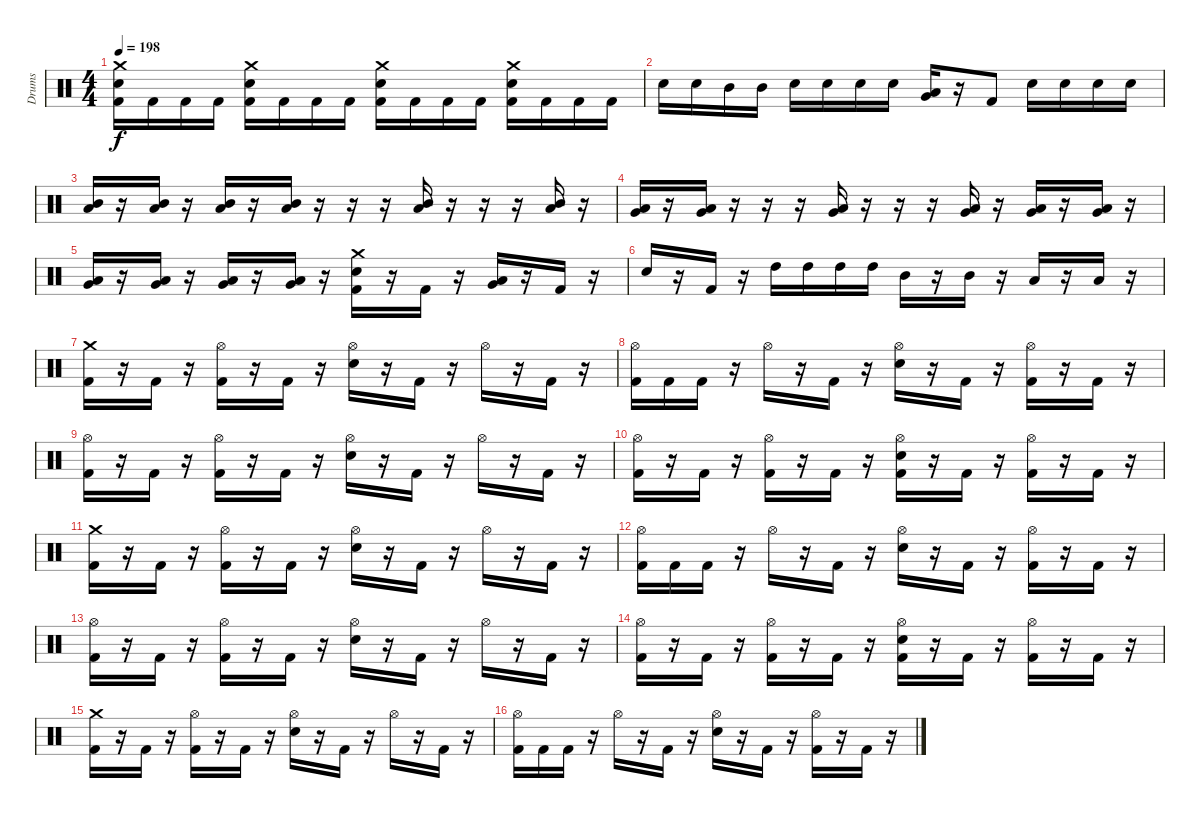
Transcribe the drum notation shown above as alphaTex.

\track ("Drums" "Drums") {instrument percussion}
\staff {score}
\articulation defaults
\ts (4 4)
\tempo 198
\clef neutral
\ks c
("Crash medium (hit)" "Snare (hit) 2" "Kick (hit) 2").16{dy f} "Kick (hit) 2".16 "Kick (hit) 2".16 "Kick (hit) 2".16 ("Crash medium (hit)" "Snare (hit) 2" "Kick (hit) 2").16 "Kick (hit) 2".16 "Kick (hit) 2".16 "Kick (hit) 2".16 ("Crash medium (hit)" "Snare (hit) 2" "Kick (hit) 2").16 "Kick (hit) 2".16 "Kick (hit) 2".16 "Kick (hit) 2".16 ("Crash medium (hit)" "Snare (hit) 2" "Kick (hit) 2").16 "Kick (hit) 2".16 "Kick (hit) 2".16 "Kick (hit) 2".16 |
"Snare (hit) 2".16 "Snare (hit) 2".16 "Mid Tom (hit)".16 "Mid Tom (hit)".16 "Snare (hit) 2".16 "Snare (hit) 2".16 "Snare (hit) 2".16 "Snare (hit) 2".16 ("Very Low Tom (hit)" "Low Tom (hit)").16 r.16 "Kick (hit) 2".8 "Snare (hit) 2".16 "Snare (hit) 2".16 "Snare (hit) 2".16 "Snare (hit) 2".16 |
("Mid Tom (hit)" "Low Tom (hit)").16 r.16 ("Mid Tom (hit)" "Low Tom (hit)").16 r.16 ("Mid Tom (hit)" "Low Tom (hit)").16 r.16 ("Mid Tom (hit)" "Low Tom (hit)").16 r.16 r.16 r.16 ("Mid Tom (hit)" "Low Tom (hit)").16 r.16 r.16 r.16 ("Mid Tom (hit)" "Low Tom (hit)").16 r.16 |
("Very Low Tom (hit)" "Low Tom (hit)").16 r.16 ("Very Low Tom (hit)" "Low Tom (hit)").16 r.16 r.16 r.16 ("Very Low Tom (hit)" "Low Tom (hit)").16 r.16 r.16 r.16 ("Very Low Tom (hit)" "Low Tom (hit)").16 r.16 ("Very Low Tom (hit)" "Low Tom (hit)").16 r.16 ("Very Low Tom (hit)" "Low Tom (hit)").16 r.16 |
("Very Low Tom (hit)" "Low Floor Tom (hit)").16 r.16 ("Very Low Tom (hit)" "Low Floor Tom (hit)").16 r.16 ("Very Low Tom (hit)" "Low Floor Tom (hit)").16 r.16 ("Very Low Tom (hit)" "Low Floor Tom (hit)").16 r.16 ("Crash medium (hit)" "Snare (hit) 2" "Kick (hit) 2").16 r.16 "Kick (hit) 2".16 r.16 ("Very Low Tom (hit)" "Low Floor Tom (hit)").16 r.16 "Kick (hit) 2".16 r.16 |
"Snare (hit) 2".16 r.16 "Kick (hit) 2".16 r.16 "High Tom (hit)".16 "High Tom (hit)".16 "High Tom (hit)".16 "High Tom (hit)".16 "Mid Tom (hit)".16 r.16 "Mid Tom (hit)".16 r.16 "Low Tom (hit)".16 r.16 "Low Tom (hit)".16 r.16 |
("Crash medium (hit)" "Kick (hit) 2").16 r.16 "Kick (hit) 2".16 r.16 ("Hi-Hat (open)" "Kick (hit) 2").16 r.16 "Kick (hit) 2".16 r.16 ("Hi-Hat (open)" "Snare (hit) 2").16 r.16 "Kick (hit) 2".16 r.16 "Hi-Hat (open)".16 r.16 "Kick (hit) 2".16 r.16 |
("Hi-Hat (open)" "Kick (hit) 2").16 "Kick (hit) 2".16 "Kick (hit) 2".16 r.16 "Hi-Hat (open)".16 r.16 "Kick (hit) 2".16 r.16 ("Hi-Hat (open)" "Snare (hit) 2").16 r.16 "Kick (hit) 2".16 r.16 ("Hi-Hat (open)" "Kick (hit) 2").16 r.16 "Kick (hit) 2".16 r.16 |
("Hi-Hat (open)" "Kick (hit) 2").16 r.16 "Kick (hit) 2".16 r.16 ("Hi-Hat (open)" "Kick (hit) 2").16 r.16 "Kick (hit) 2".16 r.16 ("Hi-Hat (open)" "Snare (hit) 2").16 r.16 "Kick (hit) 2".16 r.16 "Hi-Hat (open)".16 r.16 "Kick (hit) 2".16 r.16 |
("Hi-Hat (open)" "Kick (hit) 2").16 r.16 "Kick (hit) 2".16 r.16 ("Hi-Hat (open)" "Kick (hit) 2").16 r.16 "Kick (hit) 2".16 r.16 ("Hi-Hat (open)" "Snare (hit) 2" "Kick (hit) 2").16 r.16 "Kick (hit) 2".16 r.16 ("Hi-Hat (open)" "Kick (hit) 2").16 r.16 "Kick (hit) 2".16 r.16 |
("Crash medium (hit)" "Kick (hit) 2").16 r.16 "Kick (hit) 2".16 r.16 ("Hi-Hat (open)" "Kick (hit) 2").16 r.16 "Kick (hit) 2".16 r.16 ("Hi-Hat (open)" "Snare (hit) 2").16 r.16 "Kick (hit) 2".16 r.16 "Hi-Hat (open)".16 r.16 "Kick (hit) 2".16 r.16 |
("Hi-Hat (open)" "Kick (hit) 2").16 "Kick (hit) 2".16 "Kick (hit) 2".16 r.16 "Hi-Hat (open)".16 r.16 "Kick (hit) 2".16 r.16 ("Hi-Hat (open)" "Snare (hit) 2").16 r.16 "Kick (hit) 2".16 r.16 ("Hi-Hat (open)" "Kick (hit) 2").16 r.16 "Kick (hit) 2".16 r.16 |
("Hi-Hat (open)" "Kick (hit) 2").16 r.16 "Kick (hit) 2".16 r.16 ("Hi-Hat (open)" "Kick (hit) 2").16 r.16 "Kick (hit) 2".16 r.16 ("Hi-Hat (open)" "Snare (hit) 2").16 r.16 "Kick (hit) 2".16 r.16 "Hi-Hat (open)".16 r.16 "Kick (hit) 2".16 r.16 |
("Hi-Hat (open)" "Kick (hit) 2").16 r.16 "Kick (hit) 2".16 r.16 ("Hi-Hat (open)" "Kick (hit) 2").16 r.16 "Kick (hit) 2".16 r.16 ("Hi-Hat (open)" "Snare (hit) 2" "Kick (hit) 2").16 r.16 "Kick (hit) 2".16 r.16 ("Hi-Hat (open)" "Kick (hit) 2").16 r.16 "Kick (hit) 2".16 r.16 |
("Crash medium (hit)" "Kick (hit) 2").16 r.16 "Kick (hit) 2".16 r.16 ("Hi-Hat (open)" "Kick (hit) 2").16 r.16 "Kick (hit) 2".16 r.16 ("Hi-Hat (open)" "Snare (hit) 2").16 r.16 "Kick (hit) 2".16 r.16 "Hi-Hat (open)".16 r.16 "Kick (hit) 2".16 r.16 |
("Hi-Hat (open)" "Kick (hit) 2").16 "Kick (hit) 2".16 "Kick (hit) 2".16 r.16 "Hi-Hat (open)".16 r.16 "Kick (hit) 2".16 r.16 ("Hi-Hat (open)" "Snare (hit) 2").16 r.16 "Kick (hit) 2".16 r.16 ("Hi-Hat (open)" "Kick (hit) 2").16 r.16 "Kick (hit) 2".16 r.16
